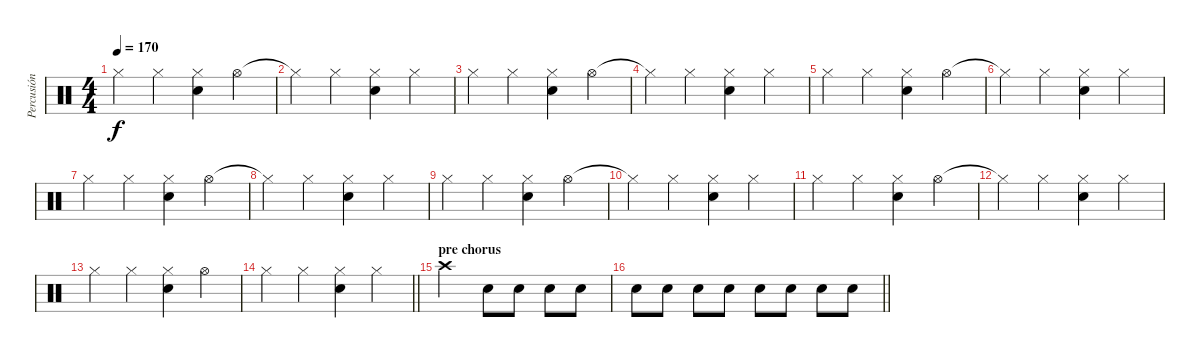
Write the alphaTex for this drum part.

\track ("Percusión" "Percusión") {instrument percussion}
\staff {score}
\articulation defaults
\ts (4 4)
\tempo 170
\clef neutral
\ks c "Hi-Hat (closed)".4{dy f} "Hi-Hat (closed)".4
("Electric Snare (hit)" "Hi-Hat (closed)").4 "Hi-Hat (open)".4 |
"Hi-Hat (closed)"{t}.4 "Hi-Hat (closed)".4 ("Electric Snare (hit)" "Hi-Hat (closed)").4 "Hi-Hat (closed)".4 |
"Hi-Hat (closed)".4 "Hi-Hat (closed)".4 ("Electric Snare (hit)" "Hi-Hat (closed)").4 "Hi-Hat (open)".4 |
"Hi-Hat (closed)"{t}.4 "Hi-Hat (closed)".4 ("Electric Snare (hit)" "Hi-Hat (closed)").4 "Hi-Hat (closed)".4 |
"Hi-Hat (closed)".4 "Hi-Hat (closed)".4 ("Electric Snare (hit)" "Hi-Hat (closed)").4 "Hi-Hat (open)".4 |
"Hi-Hat (closed)"{t}.4 "Hi-Hat (closed)".4 ("Electric Snare (hit)" "Hi-Hat (closed)").4 "Hi-Hat (closed)".4 |
"Hi-Hat (closed)".4 "Hi-Hat (closed)".4 ("Electric Snare (hit)" "Hi-Hat (closed)").4 "Hi-Hat (open)".4 |
"Hi-Hat (closed)"{t}.4 "Hi-Hat (closed)".4 ("Electric Snare (hit)" "Hi-Hat (closed)").4 "Hi-Hat (closed)".4 |
"Hi-Hat (closed)".4 "Hi-Hat (closed)".4 ("Electric Snare (hit)" "Hi-Hat (closed)").4 "Hi-Hat (open)".4 |
"Hi-Hat (closed)"{t}.4 "Hi-Hat (closed)".4 ("Electric Snare (hit)" "Hi-Hat (closed)").4 "Hi-Hat (closed)".4 |
"Hi-Hat (closed)".4 "Hi-Hat (closed)".4 ("Electric Snare (hit)" "Hi-Hat (closed)").4 "Hi-Hat (open)".4 |
"Hi-Hat (closed)"{t}.4 "Hi-Hat (closed)".4 ("Electric Snare (hit)" "Hi-Hat (closed)").4 "Hi-Hat (closed)".4 |
"Hi-Hat (closed)".4 "Hi-Hat (closed)".4 ("Electric Snare (hit)" "Hi-Hat (closed)").4 "Hi-Hat (open)".4 |
\barLineRight lightlight "Hi-Hat (closed)".4 "Hi-Hat (closed)".4
("Electric Snare (hit)" "Hi-Hat (closed)").4 "Hi-Hat (closed)".4 |
\section ("" "pre chorus")
"Crash high (hit)".2 "Electric Snare (hit)".8 "Electric Snare (hit)".8 "Electric Snare (hit)".8 "Electric Snare (hit)".8 |
\barLineRight lightlight "Electric Snare (hit)".8 "Electric Snare (hit)".8 "Electric Snare (hit)".8 "Electric Snare (hit)".8 "Electric Snare (hit)".8 "Electric Snare (hit)".8 "Electric Snare (hit)".8 "Electric Snare (hit)".8
